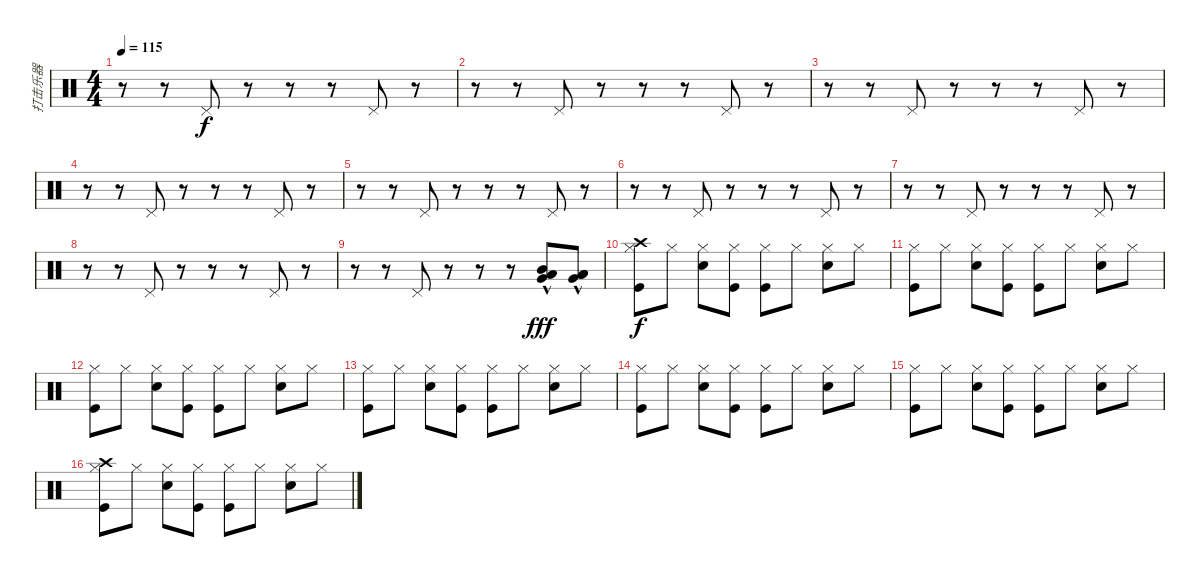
\track ("打击乐器" "打击乐器") {instrument percussion}
\staff {score}
\articulation defaults
\ts (4 4)
\tempo 115
\clef neutral
\ks c
r.8{dy f} r.8 "Pedal Hi-Hat (hit)".8 r.8 r.8 r.8 "Pedal Hi-Hat (hit)".8 r.8 |
r.8 r.8 "Pedal Hi-Hat (hit)".8 r.8 r.8 r.8 "Pedal Hi-Hat (hit)".8 r.8 |
r.8 r.8 "Pedal Hi-Hat (hit)".8 r.8 r.8 r.8 "Pedal Hi-Hat (hit)".8 r.8 |
r.8 r.8 "Pedal Hi-Hat (hit)".8 r.8 r.8 r.8 "Pedal Hi-Hat (hit)".8 r.8 |
r.8 r.8 "Pedal Hi-Hat (hit)".8 r.8 r.8 r.8 "Pedal Hi-Hat (hit)".8 r.8 |
r.8 r.8 "Pedal Hi-Hat (hit)".8 r.8 r.8 r.8 "Pedal Hi-Hat (hit)".8 r.8 |
r.8 r.8 "Pedal Hi-Hat (hit)".8 r.8 r.8 r.8 "Pedal Hi-Hat (hit)".8 r.8 |
r.8 r.8 "Pedal Hi-Hat (hit)".8 r.8 r.8 r.8 "Pedal Hi-Hat (hit)".8 r.8 |
r.8 r.8 "Pedal Hi-Hat (hit)".8 r.8 r.8 r.8 ("Very Low Tom (hit)"{hac} "Low Tom (hit)"{hac} "Mid Tom (hit)"{hac}).8{dy fff} ("Low Floor Tom (hit)"{hac} "Very Low Tom (hit)"{hac} "Low Floor Tom (hit)"{hac}).8 |
("Hi-Hat (closed)" "Kick (hit)" "Crash high (hit)").8{dy f} "Hi-Hat (closed)".8 ("Hi-Hat (closed)" "Snare (hit) 2").8 ("Hi-Hat (closed)" "Kick (hit)").8 ("Hi-Hat (closed)" "Kick (hit)").8 "Hi-Hat (closed)".8 ("Hi-Hat (closed)" "Snare (hit) 2").8 "Hi-Hat (closed)".8 |
("Hi-Hat (closed)" "Kick (hit)").8 "Hi-Hat (closed)".8 ("Hi-Hat (closed)" "Snare (hit) 2").8 ("Hi-Hat (closed)" "Kick (hit)").8 ("Hi-Hat (closed)" "Kick (hit)").8 "Hi-Hat (closed)".8 ("Hi-Hat (closed)" "Snare (hit) 2").8 "Hi-Hat (closed)".8 |
("Hi-Hat (closed)" "Kick (hit)").8 "Hi-Hat (closed)".8 ("Hi-Hat (closed)" "Snare (hit) 2").8 ("Hi-Hat (closed)" "Kick (hit)").8 ("Hi-Hat (closed)" "Kick (hit)").8 "Hi-Hat (closed)".8 ("Hi-Hat (closed)" "Snare (hit) 2").8 "Hi-Hat (closed)".8 |
("Hi-Hat (closed)" "Kick (hit)").8 "Hi-Hat (closed)".8 ("Hi-Hat (closed)" "Snare (hit) 2").8 ("Hi-Hat (closed)" "Kick (hit)").8 ("Hi-Hat (closed)" "Kick (hit)").8 "Hi-Hat (closed)".8 ("Hi-Hat (closed)" "Snare (hit) 2").8 "Hi-Hat (closed)".8 |
("Hi-Hat (closed)" "Kick (hit)").8 "Hi-Hat (closed)".8 ("Hi-Hat (closed)" "Snare (hit) 2").8 ("Hi-Hat (closed)" "Kick (hit)").8 ("Hi-Hat (closed)" "Kick (hit)").8 "Hi-Hat (closed)".8 ("Hi-Hat (closed)" "Snare (hit) 2").8 "Hi-Hat (closed)".8 |
("Hi-Hat (closed)" "Kick (hit)").8 "Hi-Hat (closed)".8 ("Hi-Hat (closed)" "Snare (hit) 2").8 ("Hi-Hat (closed)" "Kick (hit)").8 ("Hi-Hat (closed)" "Kick (hit)").8 "Hi-Hat (closed)".8 ("Hi-Hat (closed)" "Snare (hit) 2").8 "Hi-Hat (closed)".8 |
("Hi-Hat (closed)" "Kick (hit)" "Crash high (hit)").8 "Hi-Hat (closed)".8 ("Hi-Hat (closed)" "Snare (hit) 2").8 ("Hi-Hat (closed)" "Kick (hit)").8 ("Hi-Hat (closed)" "Kick (hit)").8 "Hi-Hat (closed)".8 ("Hi-Hat (closed)" "Snare (hit) 2").8 "Hi-Hat (closed)".8
